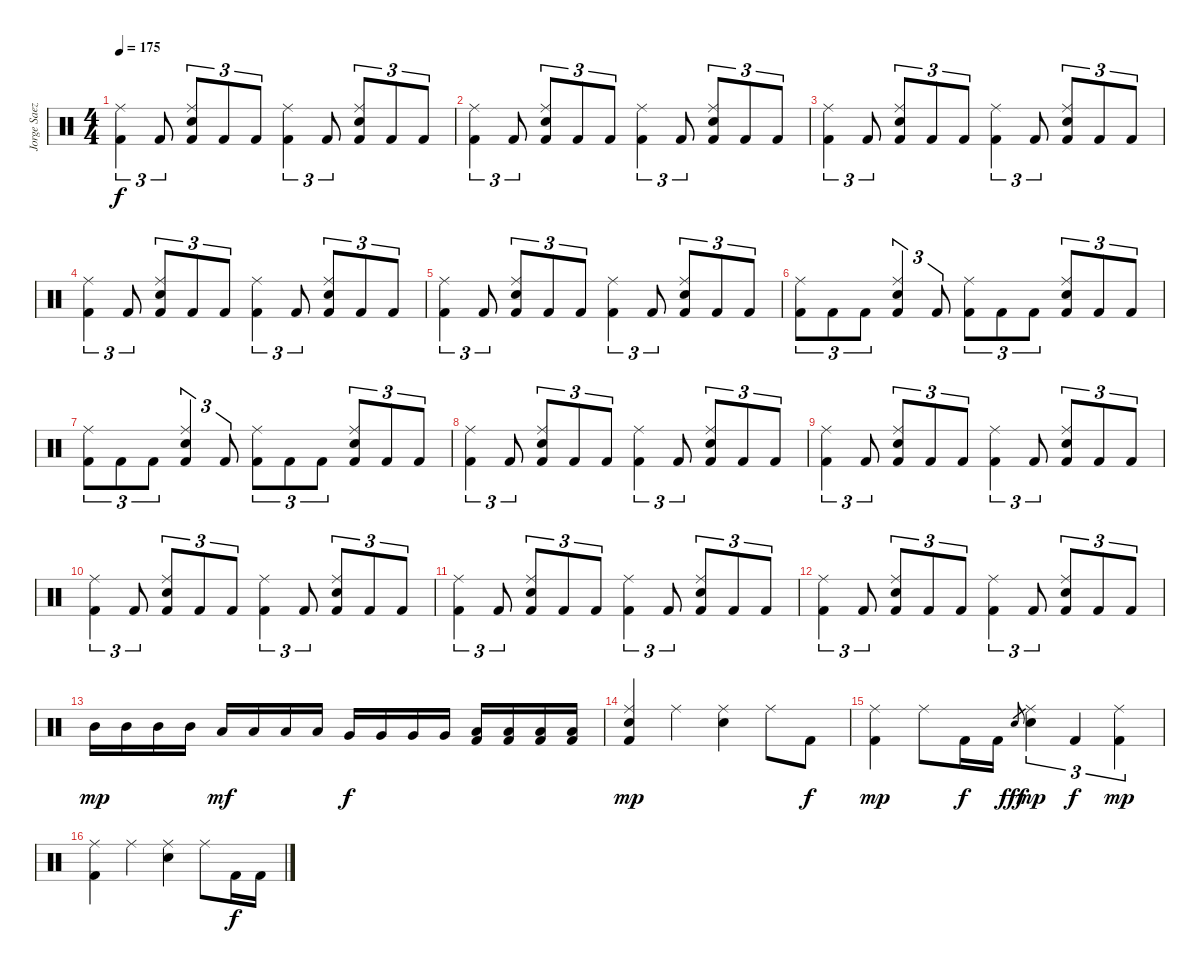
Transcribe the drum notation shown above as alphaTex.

\track ("Jorge Saez, Drums" "Jorge Saez") {instrument percussion}
\staff
\articulation defaults
\ts (4 4)
\tempo 175
\clef neutral
\ks c
("Kick (hit) 2" "Ride (middle)").4{tu (3 2) dy f} "Kick (hit) 2".8{tu (3 2)} ("Kick (hit) 2" "Electric Snare (hit)" "Ride (middle)").8{tu (3 2)} "Kick (hit) 2".8{tu (3 2)} "Kick (hit) 2".8{tu (3 2)} ("Kick (hit) 2" "Ride (middle)").4{tu (3 2)} "Kick (hit) 2".8{tu (3 2)} ("Kick (hit) 2" "Electric Snare (hit)" "Ride (middle)").8{tu (3 2)} "Kick (hit) 2".8{tu (3 2)} "Kick (hit) 2".8{tu (3 2)} |
("Kick (hit) 2" "Ride (middle)").4{tu (3 2)} "Kick (hit) 2".8{tu (3 2)} ("Kick (hit) 2" "Electric Snare (hit)" "Ride (middle)").8{tu (3 2)} "Kick (hit) 2".8{tu (3 2)} "Kick (hit) 2".8{tu (3 2)} ("Kick (hit) 2" "Ride (middle)").4{tu (3 2)} "Kick (hit) 2".8{tu (3 2)} ("Kick (hit) 2" "Electric Snare (hit)" "Ride (middle)").8{tu (3 2)} "Kick (hit) 2".8{tu (3 2)} "Kick (hit) 2".8{tu (3 2)} |
("Kick (hit) 2" "Ride (middle)").4{tu (3 2)} "Kick (hit) 2".8{tu (3 2)} ("Kick (hit) 2" "Electric Snare (hit)" "Ride (middle)").8{tu (3 2)} "Kick (hit) 2".8{tu (3 2)} "Kick (hit) 2".8{tu (3 2)} ("Kick (hit) 2" "Ride (middle)").4{tu (3 2)} "Kick (hit) 2".8{tu (3 2)} ("Kick (hit) 2" "Electric Snare (hit)" "Ride (middle)").8{tu (3 2)} "Kick (hit) 2".8{tu (3 2)} "Kick (hit) 2".8{tu (3 2)} |
("Kick (hit) 2" "Ride (middle)").4{tu (3 2)} "Kick (hit) 2".8{tu (3 2)} ("Kick (hit) 2" "Electric Snare (hit)" "Ride (middle)").8{tu (3 2)} "Kick (hit) 2".8{tu (3 2)} "Kick (hit) 2".8{tu (3 2)} ("Kick (hit) 2" "Ride (middle)").4{tu (3 2)} "Kick (hit) 2".8{tu (3 2)} ("Kick (hit) 2" "Electric Snare (hit)" "Ride (middle)").8{tu (3 2)} "Kick (hit) 2".8{tu (3 2)} "Kick (hit) 2".8{tu (3 2)} |
("Kick (hit) 2" "Ride (middle)").4{tu (3 2)} "Kick (hit) 2".8{tu (3 2)} ("Kick (hit) 2" "Electric Snare (hit)" "Ride (middle)").8{tu (3 2)} "Kick (hit) 2".8{tu (3 2)} "Kick (hit) 2".8{tu (3 2)} ("Kick (hit) 2" "Ride (middle)").4{tu (3 2)} "Kick (hit) 2".8{tu (3 2)} ("Kick (hit) 2" "Electric Snare (hit)" "Ride (middle)").8{tu (3 2)} "Kick (hit) 2".8{tu (3 2)} "Kick (hit) 2".8{tu (3 2)} |
("Kick (hit) 2" "Ride (middle)").8{tu (3 2)} "Kick (hit) 2".8{tu (3 2)} "Kick (hit) 2".8{tu (3 2)} ("Kick (hit) 2" "Electric Snare (hit)" "Ride (middle)").4{tu (3 2)} "Kick (hit) 2".8{tu (3 2)} ("Kick (hit) 2" "Ride (middle)").8{tu (3 2)} "Kick (hit) 2".8{tu (3 2)} "Kick (hit) 2".8{tu (3 2)} ("Kick (hit) 2" "Electric Snare (hit)" "Ride (middle)").8{tu (3 2)} "Kick (hit) 2".8{tu (3 2)} "Kick (hit) 2".8{tu (3 2)} |
("Kick (hit) 2" "Ride (middle)").8{tu (3 2)} "Kick (hit) 2".8{tu (3 2)} "Kick (hit) 2".8{tu (3 2)} ("Kick (hit) 2" "Electric Snare (hit)" "Ride (middle)").4{tu (3 2)} "Kick (hit) 2".8{tu (3 2)} ("Kick (hit) 2" "Ride (middle)").8{tu (3 2)} "Kick (hit) 2".8{tu (3 2)} "Kick (hit) 2".8{tu (3 2)} ("Kick (hit) 2" "Electric Snare (hit)" "Ride (middle)").8{tu (3 2)} "Kick (hit) 2".8{tu (3 2)} "Kick (hit) 2".8{tu (3 2)} |
("Kick (hit) 2" "Ride (middle)").4{tu (3 2)} "Kick (hit) 2".8{tu (3 2)} ("Kick (hit) 2" "Electric Snare (hit)" "Ride (middle)").8{tu (3 2)} "Kick (hit) 2".8{tu (3 2)} "Kick (hit) 2".8{tu (3 2)} ("Kick (hit) 2" "Ride (middle)").4{tu (3 2)} "Kick (hit) 2".8{tu (3 2)} ("Kick (hit) 2" "Electric Snare (hit)" "Ride (middle)").8{tu (3 2)} "Kick (hit) 2".8{tu (3 2)} "Kick (hit) 2".8{tu (3 2)} |
("Kick (hit) 2" "Ride (middle)").4{tu (3 2)} "Kick (hit) 2".8{tu (3 2)} ("Kick (hit) 2" "Electric Snare (hit)" "Ride (middle)").8{tu (3 2)} "Kick (hit) 2".8{tu (3 2)} "Kick (hit) 2".8{tu (3 2)} ("Kick (hit) 2" "Ride (middle)").4{tu (3 2)} "Kick (hit) 2".8{tu (3 2)} ("Kick (hit) 2" "Electric Snare (hit)" "Ride (middle)").8{tu (3 2)} "Kick (hit) 2".8{tu (3 2)} "Kick (hit) 2".8{tu (3 2)} |
("Kick (hit) 2" "Ride (middle)").4{tu (3 2)} "Kick (hit) 2".8{tu (3 2)} ("Kick (hit) 2" "Electric Snare (hit)" "Ride (middle)").8{tu (3 2)} "Kick (hit) 2".8{tu (3 2)} "Kick (hit) 2".8{tu (3 2)} ("Kick (hit) 2" "Ride (middle)").4{tu (3 2)} "Kick (hit) 2".8{tu (3 2)} ("Kick (hit) 2" "Electric Snare (hit)" "Ride (middle)").8{tu (3 2)} "Kick (hit) 2".8{tu (3 2)} "Kick (hit) 2".8{tu (3 2)} |
("Kick (hit) 2" "Ride (middle)").4{tu (3 2)} "Kick (hit) 2".8{tu (3 2)} ("Kick (hit) 2" "Electric Snare (hit)" "Ride (middle)").8{tu (3 2)} "Kick (hit) 2".8{tu (3 2)} "Kick (hit) 2".8{tu (3 2)} ("Kick (hit) 2" "Ride (middle)").4{tu (3 2)} "Kick (hit) 2".8{tu (3 2)} ("Kick (hit) 2" "Electric Snare (hit)" "Ride (middle)").8{tu (3 2)} "Kick (hit) 2".8{tu (3 2)} "Kick (hit) 2".8{tu (3 2)} |
("Kick (hit) 2" "Ride (middle)").4{tu (3 2)} "Kick (hit) 2".8{tu (3 2)} ("Kick (hit) 2" "Electric Snare (hit)" "Ride (middle)").8{tu (3 2)} "Kick (hit) 2".8{tu (3 2)} "Kick (hit) 2".8{tu (3 2)} ("Kick (hit) 2" "Ride (middle)").4{tu (3 2)} "Kick (hit) 2".8{tu (3 2)} ("Kick (hit) 2" "Electric Snare (hit)" "Ride (middle)").8{tu (3 2)} "Kick (hit) 2".8{tu (3 2)} "Kick (hit) 2".8{tu (3 2)} |
"Mid Tom (hit)".16{dy mp} "Mid Tom (hit)".16 "Mid Tom (hit)".16 "Mid Tom (hit)".16 "Low Tom (hit)".16{dy mf} "Low Tom (hit)".16 "Low Tom (hit)".16 "Low Tom (hit)".16 "Very Low Tom (hit)".16{dy f} "Very Low Tom (hit)".16 "Very Low Tom (hit)".16 "Very Low Tom (hit)".16 ("Kick (hit) 2" "Low Floor Tom (hit)").16 ("Kick (hit) 2" "Low Floor Tom (hit)").16 ("Kick (hit) 2" "Low Floor Tom (hit)").16 ("Kick (hit) 2" "Low Floor Tom (hit)").16 |
("Kick (hit) 2" "Electric Snare (hit)" "Ride (middle)").4{dy mp} "Ride (middle)".4 ("Electric Snare (hit)" "Ride (middle)").4 "Ride (middle)".8 "Kick (hit) 2".8{dy f} |
("Kick (hit) 2" "Ride (middle)").4{dy mp} "Ride (middle)".8 "Kick (hit) 2".16{dy f} "Kick (hit) 2".16 "Electric Snare (hit)".8{gr dy fff} ("Electric Snare (hit)" "Ride (middle)").4{tu (3 2) dy mp} "Kick (hit) 2".4{tu (3 2) dy f} ("Kick (hit) 2" "Ride (middle)").4{tu (3 2) dy mp} |
("Kick (hit) 2" "Ride (middle)").4 "Ride (middle)".4 ("Electric Snare (hit)" "Ride (middle)").4 "Ride (middle)".8 "Kick (hit) 2".16{dy f} "Kick (hit) 2".16
